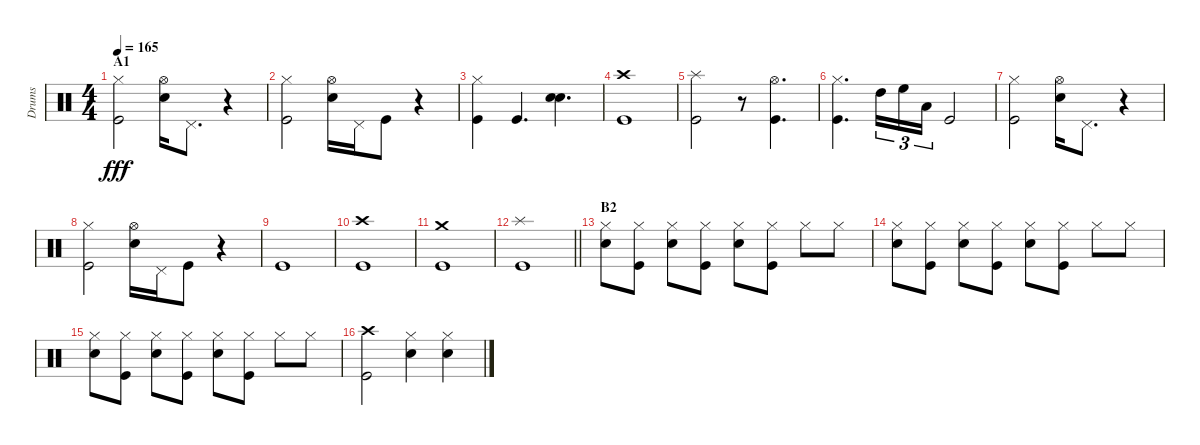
\track ("Drums" "Drums") {instrument percussion}
\staff {score}
\articulation defaults
\ts (4 4)
\section ("" "A1")
\tempo 165
\clef neutral
\ks c
("Hi-Hat (closed)" "Kick (hit)").2{dy fff} ("Hi-Hat (open)" "Snare (hit) 2").16 "Pedal Hi-Hat (hit)".8{d} r.4 |
("Hi-Hat (closed)" "Kick (hit)").2 ("Hi-Hat (open)" "Snare (hit) 2").16 "Pedal Hi-Hat (hit)".16 "Kick (hit)".8 r.4 |
("Hi-Hat (closed)" "Kick (hit)").4 "Kick (hit)".4{d} ("Electric Snare (hit)" "Snare (hit) 2").4{d} |
("Crash high (hit)" "Kick (hit)").1 |
("Splash (hit)" "Kick (hit)").2 r.8 ("Hi-Hat (open)" "Kick (hit)").4{d} |
("Hi-Hat (closed)" "Kick (hit)").4{d} "High Tom (hit)".16{tu (3 2)} "High Floor Tom (hit)".16{tu (3 2)} "Low Tom (hit)".16{tu (3 2)} "Kick (hit)".2 |
("Hi-Hat (closed)" "Kick (hit)").2 ("Hi-Hat (open)" "Snare (hit) 2").16 "Pedal Hi-Hat (hit)".8{d} r.4 |
("Hi-Hat (closed)" "Kick (hit)").2 ("Hi-Hat (open)" "Snare (hit) 2").16 "Pedal Hi-Hat (hit)".16 "Kick (hit)".8 r.4 |
"Kick (hit)".1 |
("Crash high (hit)" "Kick (hit)").1 |
("Crash medium (hit)" "Kick (hit)").1 |
\barLineRight lightlight
("Splash (hit)" "Kick (hit)").1 |
\section ("" "B2")
("Hi-Hat (closed)" "Snare (hit) 2").8 ("Hi-Hat (closed)" "Kick (hit)").8 ("Hi-Hat (closed)" "Snare (hit) 2").8 ("Hi-Hat (closed)" "Kick (hit)").8 ("Hi-Hat (closed)" "Snare (hit) 2").8 ("Hi-Hat (closed)" "Kick (hit)").8 "Hi-Hat (closed)".8 "Hi-Hat (closed)".8 |
("Hi-Hat (closed)" "Snare (hit) 2").8 ("Hi-Hat (closed)" "Kick (hit)").8 ("Hi-Hat (closed)" "Snare (hit) 2").8 ("Hi-Hat (closed)" "Kick (hit)").8 ("Hi-Hat (closed)" "Snare (hit) 2").8 ("Hi-Hat (closed)" "Kick (hit)").8 "Hi-Hat (closed)".8 "Hi-Hat (closed)".8 |
("Hi-Hat (closed)" "Snare (hit) 2").8 ("Hi-Hat (closed)" "Kick (hit)").8 ("Hi-Hat (closed)" "Snare (hit) 2").8 ("Hi-Hat (closed)" "Kick (hit)").8 ("Hi-Hat (closed)" "Snare (hit) 2").8 ("Hi-Hat (closed)" "Kick (hit)").8 "Hi-Hat (closed)".8 "Hi-Hat (closed)".8 |
("Crash high (hit)" "Kick (hit)").2 ("Hi-Hat (closed)" "Snare (hit) 2").4 ("Hi-Hat (closed)" "Snare (hit) 2").4
